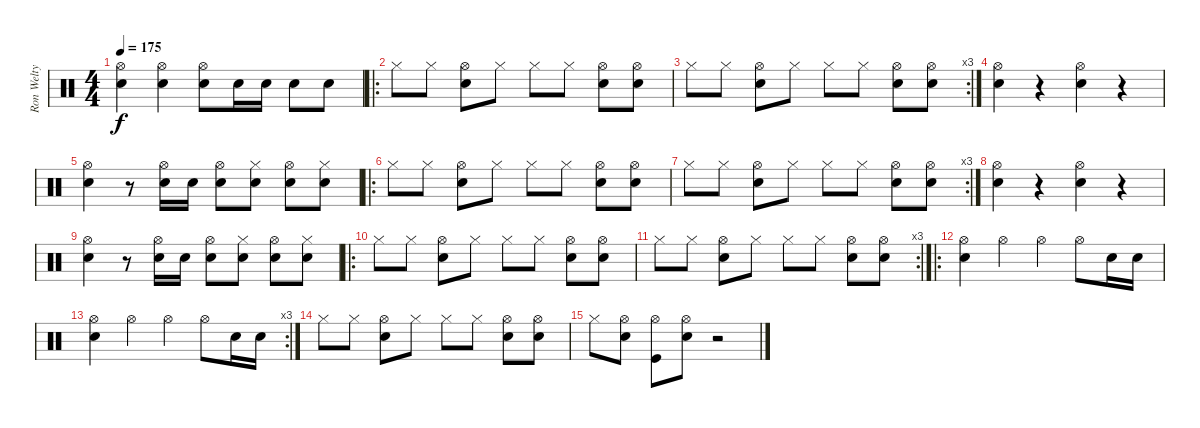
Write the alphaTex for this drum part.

\track ("Ron Welty" "Ron Welty") {instrument percussion}
\staff {score}
\articulation defaults
\ts (4 4)
\tempo 175
\clef neutral
\ks c
("Hi-Hat (open)" "Snare (hit) 2").4{dy f} ("Hi-Hat (open)" "Snare (hit) 2").4 ("Hi-Hat (open)" "Snare (hit) 2").8 "Snare (hit) 2".16 "Snare (hit) 2".16 "Snare (hit) 2".8 "Snare (hit) 2".8 |
\ro "Hi-Hat (closed)".8 "Hi-Hat (closed)".8
("Snare (hit) 2" "Hi-Hat (open)").8 "Hi-Hat (closed)".8 "Hi-Hat (closed)".8 "Hi-Hat (closed)".8 ("Snare (hit) 2" "Hi-Hat (open)").8 ("Snare (hit) 2" "Hi-Hat (open)").8 |
\rc 3 "Hi-Hat (closed)".8 "Hi-Hat (closed)".8
("Snare (hit) 2" "Hi-Hat (open)").8 "Hi-Hat (closed)".8 "Hi-Hat (closed)".8 "Hi-Hat (closed)".8 ("Snare (hit) 2" "Hi-Hat (open)").8 ("Snare (hit) 2" "Hi-Hat (open)").8 |
("Snare (hit) 2" "Hi-Hat (open)").4 r.4 ("Snare (hit) 2" "Hi-Hat (open)").4 r.4 |
("Snare (hit) 2" "Hi-Hat (open)").4 r.8 ("Snare (hit) 2" "Hi-Hat (open)").16 "Snare (hit) 2".16 ("Snare (hit) 2" "Hi-Hat (open)").8 ("Snare (hit) 2" "Hi-Hat (closed)").8 ("Snare (hit) 2" "Hi-Hat (open)").8 ("Snare (hit) 2" "Hi-Hat (closed)").8 |
\ro "Hi-Hat (closed)".8 "Hi-Hat (closed)".8
("Snare (hit) 2" "Hi-Hat (open)").8 "Hi-Hat (closed)".8 "Hi-Hat (closed)".8 "Hi-Hat (closed)".8 ("Snare (hit) 2" "Hi-Hat (open)").8 ("Snare (hit) 2" "Hi-Hat (open)").8 |
\rc 3 "Hi-Hat (closed)".8 "Hi-Hat (closed)".8
("Snare (hit) 2" "Hi-Hat (open)").8 "Hi-Hat (closed)".8 "Hi-Hat (closed)".8 "Hi-Hat (closed)".8 ("Snare (hit) 2" "Hi-Hat (open)").8 ("Snare (hit) 2" "Hi-Hat (open)").8 |
("Snare (hit) 2" "Hi-Hat (open)").4 r.4 ("Snare (hit) 2" "Hi-Hat (open)").4 r.4 |
("Snare (hit) 2" "Hi-Hat (open)").4 r.8 ("Snare (hit) 2" "Hi-Hat (open)").16 "Snare (hit) 2".16 ("Snare (hit) 2" "Hi-Hat (open)").8 ("Snare (hit) 2" "Hi-Hat (closed)").8 ("Snare (hit) 2" "Hi-Hat (open)").8 ("Snare (hit) 2" "Hi-Hat (closed)").8 |
\ro "Hi-Hat (closed)".8 "Hi-Hat (closed)".8
("Snare (hit) 2" "Hi-Hat (open)").8 "Hi-Hat (closed)".8 "Hi-Hat (closed)".8 "Hi-Hat (closed)".8 ("Snare (hit) 2" "Hi-Hat (open)").8 ("Snare (hit) 2" "Hi-Hat (open)").8 |
\rc 3 "Hi-Hat (closed)".8 "Hi-Hat (closed)".8
("Snare (hit) 2" "Hi-Hat (open)").8 "Hi-Hat (closed)".8 "Hi-Hat (closed)".8 "Hi-Hat (closed)".8 ("Snare (hit) 2" "Hi-Hat (open)").8 ("Snare (hit) 2" "Hi-Hat (open)").8 |
\ro
("Snare (hit) 2" "Hi-Hat (open)").4 "Hi-Hat (open)".4 "Hi-Hat (open)".4 "Hi-Hat (open)".8 "Snare (hit) 2".16 "Snare (hit) 2".16 |
\rc 3
("Snare (hit) 2" "Hi-Hat (open)").4 "Hi-Hat (open)".4 "Hi-Hat (open)".4 "Hi-Hat (open)".8 "Snare (hit) 2".16 "Snare (hit) 2".16 |
"Hi-Hat (closed)".8 "Hi-Hat (closed)".8 ("Snare (hit) 2" "Hi-Hat (open)").8 "Hi-Hat (closed)".8 "Hi-Hat (closed)".8 "Hi-Hat (closed)".8 ("Snare (hit) 2" "Hi-Hat (open)").8 ("Snare (hit) 2" "Hi-Hat (open)").8 |
"Hi-Hat (closed)".8 ("Snare (hit) 2" "Hi-Hat (open)").8 ("Hi-Hat (open)" "Kick (hit)").8 ("Snare (hit) 2" "Hi-Hat (open)").8 r.2
